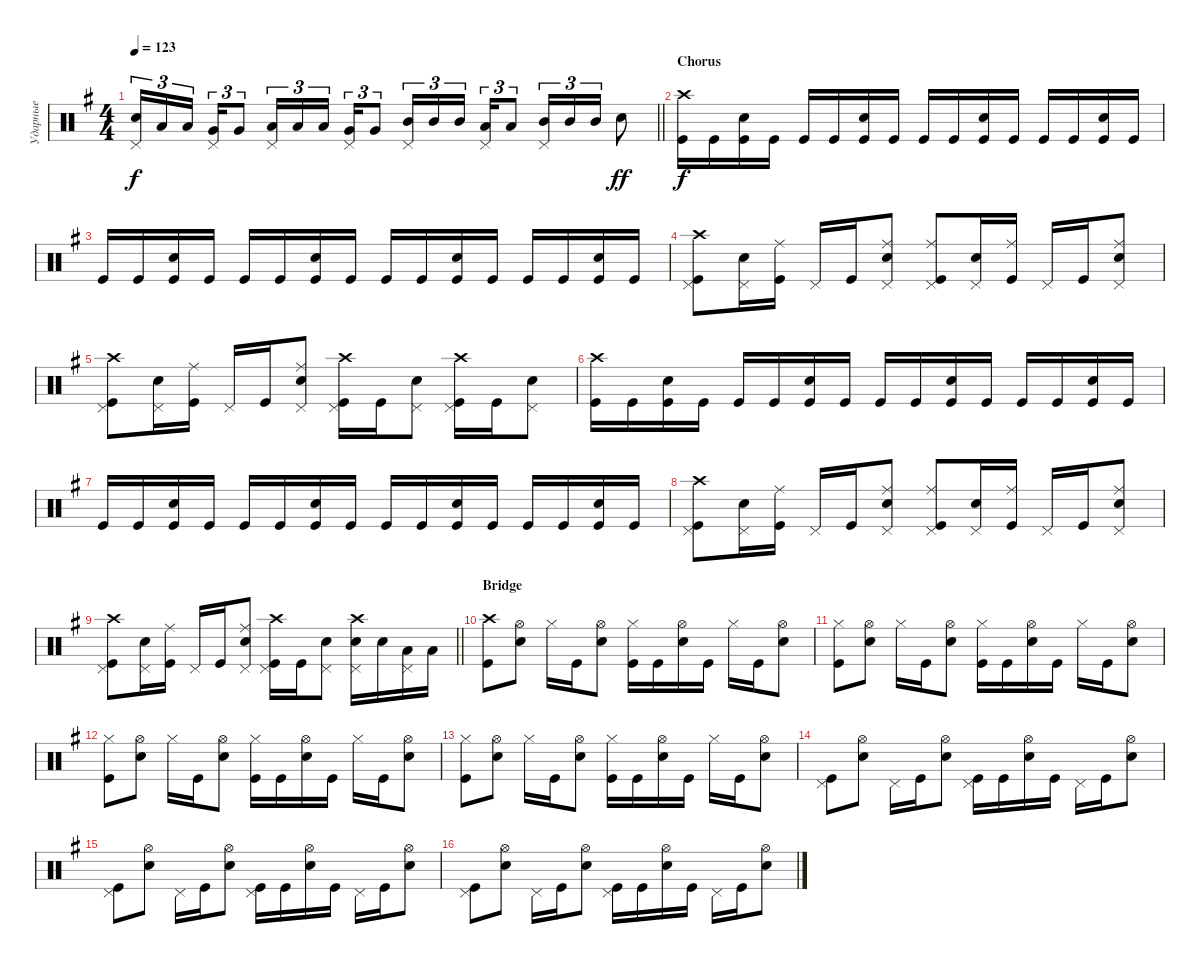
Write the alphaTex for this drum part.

\track ("Ударные" "Ударные") {instrument percussion}
\staff {score}
\articulation defaults
\ts (4 4)
\tempo 123
\clef neutral
\barLineRight lightlight
\ks eminor
("Snare (hit) 2" "Pedal Hi-Hat (hit)").16{tu (3 2) dy f} "Low Tom (hit)".16{tu (3 2)} "Low Tom (hit)".16{tu (3 2) beam splitsecondary} ("Very Low Tom (hit)" "Pedal Hi-Hat (hit)").16{tu (3 2)} "Very Low Tom (hit)".8{tu (3 2)} ("Low Tom (hit)" "Pedal Hi-Hat (hit)").16{tu (3 2)} "Low Tom (hit)".16{tu (3 2)} "Low Tom (hit)".16{tu (3 2) beam splitsecondary} ("Pedal Hi-Hat (hit)" "Very Low Tom (hit)").16{tu (3 2)} "Very Low Tom (hit)".8{tu (3 2)} ("Mid Tom (hit)" "Pedal Hi-Hat (hit)").16{tu (3 2)} "Mid Tom (hit)".16{tu (3 2)} "Mid Tom (hit)".16{tu (3 2) beam splitsecondary} ("Low Tom (hit)" "Pedal Hi-Hat (hit)").16{tu (3 2)} "Low Tom (hit)".8{tu (3 2)} ("Mid Tom (hit)" "Pedal Hi-Hat (hit)").16{tu (3 2)} "Mid Tom (hit)".16{tu (3 2)} "Mid Tom (hit)".16{tu (3 2)} "Snare (hit) 2".8{dy ff} |
\section ("" "Chorus")
("Kick (hit)" "Crash high (hit)").16{dy f} "Kick (hit)".16 ("Kick (hit)" "Snare (hit) 2").16 "Kick (hit)".16 "Kick (hit)".16 "Kick (hit)".16 ("Kick (hit)" "Snare (hit) 2").16 "Kick (hit)".16 "Kick (hit)".16 "Kick (hit)".16 ("Kick (hit)" "Snare (hit) 2").16 "Kick (hit)".16 "Kick (hit)".16 "Kick (hit)".16 ("Kick (hit)" "Snare (hit) 2").16 "Kick (hit)".16 |
"Kick (hit)".16 "Kick (hit)".16 ("Kick (hit)" "Snare (hit) 2").16 "Kick (hit)".16 "Kick (hit)".16 "Kick (hit)".16 ("Kick (hit)" "Snare (hit) 2").16 "Kick (hit)".16 "Kick (hit)".16 "Kick (hit)".16 ("Kick (hit)" "Snare (hit) 2").16 "Kick (hit)".16 "Kick (hit)".16 "Kick (hit)".16 ("Kick (hit)" "Snare (hit) 2").16 "Kick (hit)".16 |
("Kick (hit)" "Crash high (hit)" "Pedal Hi-Hat (hit)").8 ("Snare (hit) 2" "Pedal Hi-Hat (hit)").16 ("Kick (hit)" "Ride (middle)").16 "Pedal Hi-Hat (hit)".16 "Kick (hit)".16 ("Snare (hit) 2" "Ride (middle)" "Pedal Hi-Hat (hit)").8 ("Kick (hit)" "Ride (middle)" "Pedal Hi-Hat (hit)").8 ("Snare (hit) 2" "Pedal Hi-Hat (hit)").16 ("Kick (hit)" "Ride (middle)").16 "Pedal Hi-Hat (hit)".16 "Kick (hit)".16 ("Snare (hit) 2" "Ride (middle)" "Pedal Hi-Hat (hit)").8 |
("Kick (hit)" "Crash high (hit)" "Pedal Hi-Hat (hit)").8 ("Snare (hit) 2" "Pedal Hi-Hat (hit)").16 ("Kick (hit)" "Ride (middle)").16 "Pedal Hi-Hat (hit)".16 "Kick (hit)".16 ("Snare (hit) 2" "Ride (middle)" "Pedal Hi-Hat (hit)").8 ("Kick (hit)" "Crash high (hit)" "Pedal Hi-Hat (hit)").16 "Kick (hit)".16 ("Snare (hit) 2" "Pedal Hi-Hat (hit)").8 ("Kick (hit)" "Crash high (hit)" "Pedal Hi-Hat (hit)").16 "Kick (hit)".16 ("Snare (hit) 2" "Pedal Hi-Hat (hit)").8 |
("Kick (hit)" "Crash high (hit)").16 "Kick (hit)".16 ("Kick (hit)" "Snare (hit) 2").16 "Kick (hit)".16 "Kick (hit)".16 "Kick (hit)".16 ("Kick (hit)" "Snare (hit) 2").16 "Kick (hit)".16 "Kick (hit)".16 "Kick (hit)".16 ("Kick (hit)" "Snare (hit) 2").16 "Kick (hit)".16 "Kick (hit)".16 "Kick (hit)".16 ("Kick (hit)" "Snare (hit) 2").16 "Kick (hit)".16 |
"Kick (hit)".16 "Kick (hit)".16 ("Kick (hit)" "Snare (hit) 2").16 "Kick (hit)".16 "Kick (hit)".16 "Kick (hit)".16 ("Kick (hit)" "Snare (hit) 2").16 "Kick (hit)".16 "Kick (hit)".16 "Kick (hit)".16 ("Kick (hit)" "Snare (hit) 2").16 "Kick (hit)".16 "Kick (hit)".16 "Kick (hit)".16 ("Kick (hit)" "Snare (hit) 2").16 "Kick (hit)".16 |
("Kick (hit)" "Crash high (hit)" "Pedal Hi-Hat (hit)").8 ("Snare (hit) 2" "Pedal Hi-Hat (hit)").16 ("Kick (hit)" "Ride (middle)").16 "Pedal Hi-Hat (hit)".16 "Kick (hit)".16 ("Snare (hit) 2" "Ride (middle)" "Pedal Hi-Hat (hit)").8 ("Kick (hit)" "Ride (middle)" "Pedal Hi-Hat (hit)").8 ("Snare (hit) 2" "Pedal Hi-Hat (hit)").16 ("Kick (hit)" "Ride (middle)").16 "Pedal Hi-Hat (hit)".16 "Kick (hit)".16 ("Snare (hit) 2" "Ride (middle)" "Pedal Hi-Hat (hit)").8 |
\barLineRight lightlight
("Kick (hit)" "Crash high (hit)" "Pedal Hi-Hat (hit)").8 ("Snare (hit) 2" "Pedal Hi-Hat (hit)").16 ("Kick (hit)" "Ride (middle)").16 "Pedal Hi-Hat (hit)".16 "Kick (hit)".16 ("Snare (hit) 2" "Ride (middle)" "Pedal Hi-Hat (hit)").8 ("Kick (hit)" "Crash high (hit)" "Pedal Hi-Hat (hit)").16 "Kick (hit)".16 ("Snare (hit) 2" "Pedal Hi-Hat (hit)").8 ("Crash high (hit)" "Snare (hit) 2" "Pedal Hi-Hat (hit)").16 "Snare (hit) 2".16 ("Low Tom (hit)" "Pedal Hi-Hat (hit)").16 "Low Tom (hit)".16 |
\section ("" "Bridge")
("Kick (hit)" "Crash high (hit)").8 ("Snare (hit) 2" "Hi-Hat (open)").8 "Hi-Hat (closed)".16 "Kick (hit)".16 ("Snare (hit) 2" "Hi-Hat (open)").8 ("Kick (hit)" "Hi-Hat (closed)").16 "Kick (hit)".16 ("Snare (hit) 2" "Hi-Hat (open)").16 "Kick (hit)".16 "Hi-Hat (closed)".16 "Kick (hit)".16 ("Snare (hit) 2" "Hi-Hat (open)").8 |
("Kick (hit)" "Hi-Hat (closed)").8 ("Snare (hit) 2" "Hi-Hat (open)").8 "Hi-Hat (closed)".16 "Kick (hit)".16 ("Snare (hit) 2" "Hi-Hat (open)").8 ("Kick (hit)" "Hi-Hat (closed)").16 "Kick (hit)".16 ("Snare (hit) 2" "Hi-Hat (open)").16 "Kick (hit)".16 "Hi-Hat (closed)".16 "Kick (hit)".16 ("Snare (hit) 2" "Hi-Hat (open)").8 |
("Kick (hit)" "Hi-Hat (closed)").8 ("Snare (hit) 2" "Hi-Hat (open)").8 "Hi-Hat (closed)".16 "Kick (hit)".16 ("Snare (hit) 2" "Hi-Hat (open)").8 ("Kick (hit)" "Hi-Hat (closed)").16 "Kick (hit)".16 ("Snare (hit) 2" "Hi-Hat (open)").16 "Kick (hit)".16 "Hi-Hat (closed)".16 "Kick (hit)".16 ("Snare (hit) 2" "Hi-Hat (open)").8 |
("Kick (hit)" "Hi-Hat (closed)").8 ("Snare (hit) 2" "Hi-Hat (open)").8 "Hi-Hat (closed)".16 "Kick (hit)".16 ("Snare (hit) 2" "Hi-Hat (open)").8 ("Kick (hit)" "Hi-Hat (closed)").16 "Kick (hit)".16 ("Snare (hit) 2" "Hi-Hat (open)").16 "Kick (hit)".16 "Hi-Hat (closed)".16 "Kick (hit)".16 ("Snare (hit) 2" "Hi-Hat (open)").8 |
("Kick (hit)" "Pedal Hi-Hat (hit)").8 ("Snare (hit) 2" "Hi-Hat (open)").8 "Pedal Hi-Hat (hit)".16 "Kick (hit)".16 ("Snare (hit) 2" "Hi-Hat (open)").8 ("Kick (hit)" "Pedal Hi-Hat (hit)").16 "Kick (hit)".16 ("Snare (hit) 2" "Hi-Hat (open)").16 "Kick (hit)".16 "Pedal Hi-Hat (hit)".16 "Kick (hit)".16 ("Snare (hit) 2" "Hi-Hat (open)").8 |
("Kick (hit)" "Pedal Hi-Hat (hit)").8 ("Snare (hit) 2" "Hi-Hat (open)").8 "Pedal Hi-Hat (hit)".16 "Kick (hit)".16 ("Snare (hit) 2" "Hi-Hat (open)").8 ("Kick (hit)" "Pedal Hi-Hat (hit)").16 "Kick (hit)".16 ("Snare (hit) 2" "Hi-Hat (open)").16 "Kick (hit)".16 "Pedal Hi-Hat (hit)".16 "Kick (hit)".16 ("Snare (hit) 2" "Hi-Hat (open)").8 |
("Kick (hit)" "Pedal Hi-Hat (hit)").8 ("Snare (hit) 2" "Hi-Hat (open)").8 "Pedal Hi-Hat (hit)".16 "Kick (hit)".16 ("Snare (hit) 2" "Hi-Hat (open)").8 ("Kick (hit)" "Pedal Hi-Hat (hit)").16 "Kick (hit)".16 ("Snare (hit) 2" "Hi-Hat (open)").16 "Kick (hit)".16 "Pedal Hi-Hat (hit)".16 "Kick (hit)".16 ("Snare (hit) 2" "Hi-Hat (open)").8
